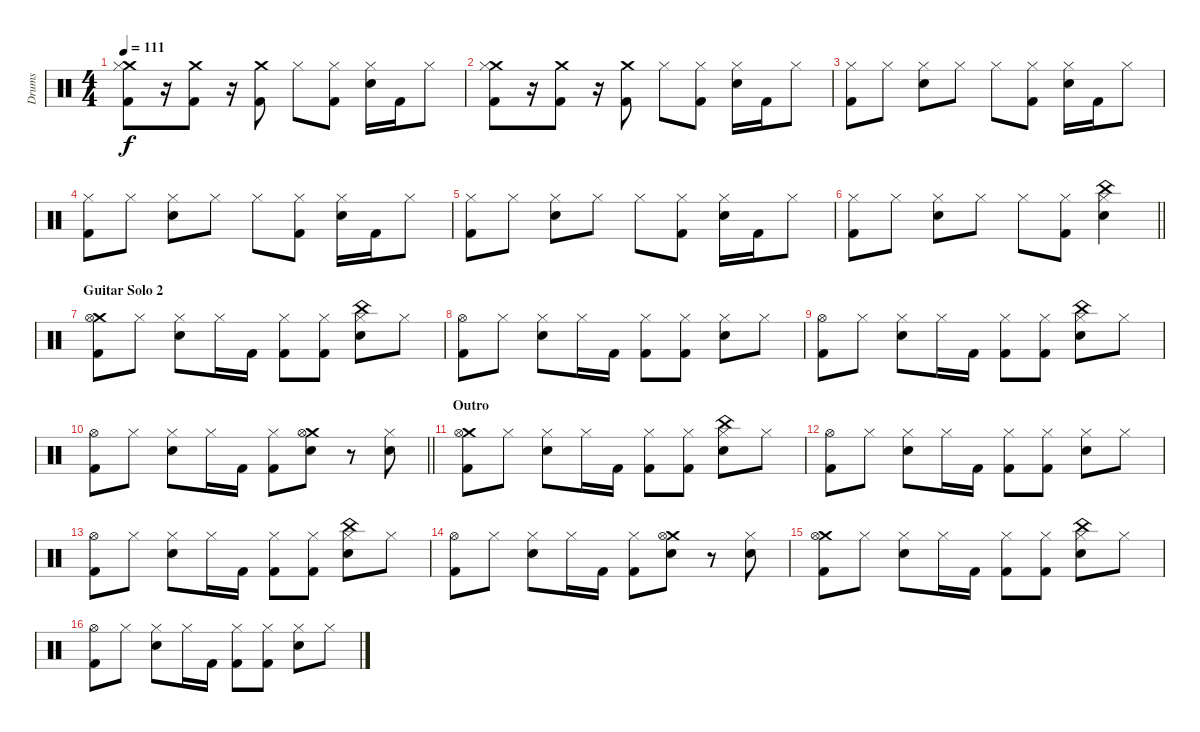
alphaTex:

\track ("Drums" "Drums") {instrument percussion}
\staff {score}
\articulation defaults
\ts (4 4)
\tempo 111
\clef neutral
\ks c
("Crash medium (hit)" "Hi-Hat (closed)" "Kick (hit) 2").8{dy f} r.16 ("Crash medium (hit)" "Kick (hit) 2").8 r.16 ("Crash medium (hit)" "Kick (hit) 2").8 "Hi-Hat (closed)".8 ("Hi-Hat (closed)" "Kick (hit) 2").8 ("Hi-Hat (closed)" "Snare (hit) 2").16 "Kick (hit) 2".16 "Hi-Hat (closed)".8 |
("Crash medium (hit)" "Hi-Hat (closed)" "Kick (hit) 2").8 r.16 ("Crash medium (hit)" "Kick (hit) 2").8 r.16 ("Crash medium (hit)" "Kick (hit) 2").8 "Hi-Hat (closed)".8 ("Hi-Hat (closed)" "Kick (hit) 2").8 ("Hi-Hat (closed)" "Snare (hit) 2").16 "Kick (hit) 2".16 "Hi-Hat (closed)".8 |
("Hi-Hat (closed)" "Kick (hit) 2").8 "Hi-Hat (closed)".8 ("Hi-Hat (closed)" "Snare (hit) 2").8 "Hi-Hat (closed)".8 "Hi-Hat (closed)".8 ("Hi-Hat (closed)" "Kick (hit) 2").8 ("Hi-Hat (closed)" "Snare (hit) 2").16 "Kick (hit) 2".16 "Hi-Hat (closed)".8 |
("Hi-Hat (closed)" "Kick (hit) 2").8 "Hi-Hat (closed)".8 ("Hi-Hat (closed)" "Snare (hit) 2").8 "Hi-Hat (closed)".8 "Hi-Hat (closed)".8 ("Hi-Hat (closed)" "Kick (hit) 2").8 ("Hi-Hat (closed)" "Snare (hit) 2").16 "Kick (hit) 2".16 "Hi-Hat (closed)".8 |
("Hi-Hat (closed)" "Kick (hit) 2").8 "Hi-Hat (closed)".8 ("Hi-Hat (closed)" "Snare (hit) 2").8 "Hi-Hat (closed)".8 "Hi-Hat (closed)".8 ("Hi-Hat (closed)" "Kick (hit) 2").8 ("Hi-Hat (closed)" "Snare (hit) 2").16 "Kick (hit) 2".16 "Hi-Hat (closed)".8 |
\barLineRight lightlight
("Hi-Hat (closed)" "Kick (hit) 2").8 "Hi-Hat (closed)".8 ("Hi-Hat (closed)" "Snare (hit) 2").8 "Hi-Hat (closed)".8 "Hi-Hat (closed)".8 ("Hi-Hat (closed)" "Kick (hit) 2").8 ("China (hit)" "Hi-Hat (closed)" "Snare (hit) 2").4 |
\section ("" "Guitar Solo 2")
("Crash medium (hit)" "Hi-Hat (open)" "Kick (hit) 2").8 "Hi-Hat (closed)".8 ("Hi-Hat (closed)" "Snare (hit) 2").8 "Hi-Hat (closed)".16 "Kick (hit) 2".16 ("Hi-Hat (closed)" "Kick (hit) 2").8 ("Hi-Hat (closed)" "Kick (hit) 2").8 ("China (hit)" "Hi-Hat (closed)" "Snare (hit) 2").8 "Hi-Hat (closed)".8 |
("Hi-Hat (open)" "Kick (hit) 2").8 "Hi-Hat (closed)".8 ("Hi-Hat (closed)" "Snare (hit) 2").8 "Hi-Hat (closed)".16 "Kick (hit) 2".16 ("Hi-Hat (closed)" "Kick (hit) 2").8 ("Hi-Hat (closed)" "Kick (hit) 2").8 ("Hi-Hat (closed)" "Snare (hit) 2").8 "Hi-Hat (closed)".8 |
("Hi-Hat (open)" "Kick (hit) 2").8 "Hi-Hat (closed)".8 ("Hi-Hat (closed)" "Snare (hit) 2").8 "Hi-Hat (closed)".16 "Kick (hit) 2".16 ("Hi-Hat (closed)" "Kick (hit) 2").8 ("Hi-Hat (closed)" "Kick (hit) 2").8 ("China (hit)" "Hi-Hat (closed)" "Snare (hit) 2").8 "Hi-Hat (closed)".8 |
\barLineRight lightlight
("Hi-Hat (open)" "Kick (hit) 2").8 "Hi-Hat (closed)".8 ("Hi-Hat (closed)" "Snare (hit) 2").8 "Hi-Hat (closed)".16 "Kick (hit) 2".16 ("Hi-Hat (closed)" "Kick (hit) 2").8 ("Crash medium (hit)" "Hi-Hat (open)" "Snare (hit) 2").8 r.8 ("Snare (hit) 2" "Hi-Hat (closed)").8 |
\section ("" "Outro")
("Crash medium (hit)" "Hi-Hat (open)" "Kick (hit) 2").8 "Hi-Hat (closed)".8 ("Hi-Hat (closed)" "Snare (hit) 2").8 "Hi-Hat (closed)".16 "Kick (hit) 2".16 ("Hi-Hat (closed)" "Kick (hit) 2").8 ("Hi-Hat (closed)" "Kick (hit) 2").8 ("China (hit)" "Hi-Hat (closed)" "Snare (hit) 2").8 "Hi-Hat (closed)".8 |
("Hi-Hat (open)" "Kick (hit) 2").8 "Hi-Hat (closed)".8 ("Hi-Hat (closed)" "Snare (hit) 2").8 "Hi-Hat (closed)".16 "Kick (hit) 2".16 ("Hi-Hat (closed)" "Kick (hit) 2").8 ("Hi-Hat (closed)" "Kick (hit) 2").8 ("Hi-Hat (closed)" "Snare (hit) 2").8 "Hi-Hat (closed)".8 |
("Hi-Hat (open)" "Kick (hit) 2").8 "Hi-Hat (closed)".8 ("Hi-Hat (closed)" "Snare (hit) 2").8 "Hi-Hat (closed)".16 "Kick (hit) 2".16 ("Hi-Hat (closed)" "Kick (hit) 2").8 ("Hi-Hat (closed)" "Kick (hit) 2").8 ("China (hit)" "Hi-Hat (closed)" "Snare (hit) 2").8 "Hi-Hat (closed)".8 |
("Hi-Hat (open)" "Kick (hit) 2").8 "Hi-Hat (closed)".8 ("Hi-Hat (closed)" "Snare (hit) 2").8 "Hi-Hat (closed)".16 "Kick (hit) 2".16 ("Hi-Hat (closed)" "Kick (hit) 2").8 ("Crash medium (hit)" "Hi-Hat (open)" "Snare (hit) 2").8 r.8 ("Snare (hit) 2" "Hi-Hat (closed)").8 |
("Crash medium (hit)" "Hi-Hat (open)" "Kick (hit) 2").8 "Hi-Hat (closed)".8 ("Hi-Hat (closed)" "Snare (hit) 2").8 "Hi-Hat (closed)".16 "Kick (hit) 2".16 ("Hi-Hat (closed)" "Kick (hit) 2").8 ("Hi-Hat (closed)" "Kick (hit) 2").8 ("China (hit)" "Hi-Hat (closed)" "Snare (hit) 2").8 "Hi-Hat (closed)".8 |
("Hi-Hat (open)" "Kick (hit) 2").8 "Hi-Hat (closed)".8 ("Hi-Hat (closed)" "Snare (hit) 2").8 "Hi-Hat (closed)".16 "Kick (hit) 2".16 ("Hi-Hat (closed)" "Kick (hit) 2").8 ("Hi-Hat (closed)" "Kick (hit) 2").8 ("Hi-Hat (closed)" "Snare (hit) 2").8 "Hi-Hat (closed)".8
